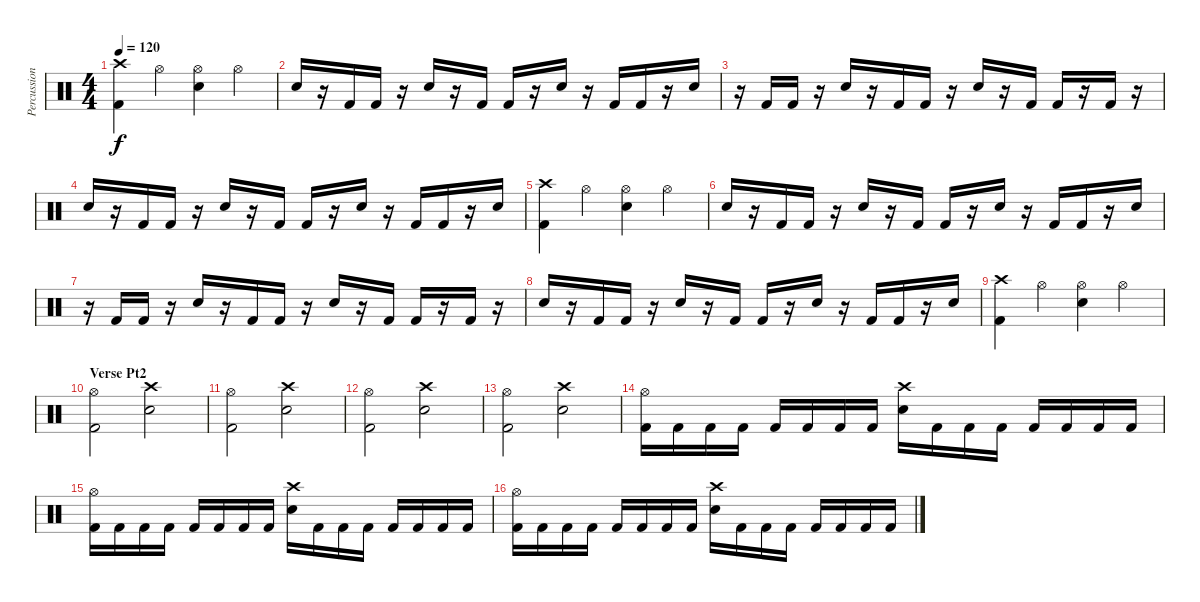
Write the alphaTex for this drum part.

\track ("Percussion" "Percussion") {instrument percussion}
\staff {score}
\articulation defaults
\ts (4 4)
\tempo 120
\clef neutral
\ks c
("Crash high (hit)" "Kick (hit) 2").4{dy f} "Hi-Hat (open)".4 ("Hi-Hat (open)" "Electric Snare (hit)").4 "Hi-Hat (open)".4 |
"Electric Snare (hit)".16 r.16 "Kick (hit) 2".16 "Kick (hit) 2".16 r.16 "Electric Snare (hit)".16 r.16 "Kick (hit) 2".16 "Kick (hit) 2".16 r.16 "Electric Snare (hit)".16 r.16 "Kick (hit) 2".16 "Kick (hit) 2".16 r.16 "Electric Snare (hit)".16 |
r.16 "Kick (hit) 2".16 "Kick (hit) 2".16 r.16 "Electric Snare (hit)".16 r.16 "Kick (hit) 2".16 "Kick (hit) 2".16 r.16 "Electric Snare (hit)".16 r.16 "Kick (hit) 2".16 "Kick (hit) 2".16 r.16 "Kick (hit) 2".16 r.16 |
"Electric Snare (hit)".16 r.16 "Kick (hit) 2".16 "Kick (hit) 2".16 r.16 "Electric Snare (hit)".16 r.16 "Kick (hit) 2".16 "Kick (hit) 2".16 r.16 "Electric Snare (hit)".16 r.16 "Kick (hit) 2".16 "Kick (hit) 2".16 r.16 "Electric Snare (hit)".16 |
("Crash high (hit)" "Kick (hit) 2").4 "Hi-Hat (open)".4 ("Hi-Hat (open)" "Electric Snare (hit)").4 "Hi-Hat (open)".4 |
"Electric Snare (hit)".16 r.16 "Kick (hit) 2".16 "Kick (hit) 2".16 r.16 "Electric Snare (hit)".16 r.16 "Kick (hit) 2".16 "Kick (hit) 2".16 r.16 "Electric Snare (hit)".16 r.16 "Kick (hit) 2".16 "Kick (hit) 2".16 r.16 "Electric Snare (hit)".16 |
r.16 "Kick (hit) 2".16 "Kick (hit) 2".16 r.16 "Electric Snare (hit)".16 r.16 "Kick (hit) 2".16 "Kick (hit) 2".16 r.16 "Electric Snare (hit)".16 r.16 "Kick (hit) 2".16 "Kick (hit) 2".16 r.16 "Kick (hit) 2".16 r.16 |
"Electric Snare (hit)".16 r.16 "Kick (hit) 2".16 "Kick (hit) 2".16 r.16 "Electric Snare (hit)".16 r.16 "Kick (hit) 2".16 "Kick (hit) 2".16 r.16 "Electric Snare (hit)".16 r.16 "Kick (hit) 2".16 "Kick (hit) 2".16 r.16 "Electric Snare (hit)".16 |
("Crash high (hit)" "Kick (hit) 2").4 "Hi-Hat (open)".4 ("Hi-Hat (open)" "Electric Snare (hit)").4 "Hi-Hat (open)".4 |
\section ("" "Verse Pt2")
("Hi-Hat (open)" "Kick (hit) 2").2 ("Crash high (hit)" "Electric Snare (hit)").2 |
("Hi-Hat (open)" "Kick (hit) 2").2 ("Crash high (hit)" "Electric Snare (hit)").2 |
("Hi-Hat (open)" "Kick (hit) 2").2 ("Crash high (hit)" "Electric Snare (hit)").2 |
("Hi-Hat (open)" "Kick (hit) 2").2 ("Crash high (hit)" "Electric Snare (hit)").2 |
("Hi-Hat (open)" "Kick (hit) 2").16 "Kick (hit) 2".16 "Kick (hit) 2".16 "Kick (hit) 2".16 "Kick (hit) 2".16 "Kick (hit) 2".16 "Kick (hit) 2".16 "Kick (hit) 2".16 ("Crash high (hit)" "Electric Snare (hit)").16 "Kick (hit) 2".16 "Kick (hit) 2".16 "Kick (hit) 2".16 "Kick (hit) 2".16 "Kick (hit) 2".16 "Kick (hit) 2".16 "Kick (hit) 2".16 |
("Hi-Hat (open)" "Kick (hit) 2").16 "Kick (hit) 2".16 "Kick (hit) 2".16 "Kick (hit) 2".16 "Kick (hit) 2".16 "Kick (hit) 2".16 "Kick (hit) 2".16 "Kick (hit) 2".16 ("Crash high (hit)" "Electric Snare (hit)").16 "Kick (hit) 2".16 "Kick (hit) 2".16 "Kick (hit) 2".16 "Kick (hit) 2".16 "Kick (hit) 2".16 "Kick (hit) 2".16 "Kick (hit) 2".16 |
("Hi-Hat (open)" "Kick (hit) 2").16 "Kick (hit) 2".16 "Kick (hit) 2".16 "Kick (hit) 2".16 "Kick (hit) 2".16 "Kick (hit) 2".16 "Kick (hit) 2".16 "Kick (hit) 2".16 ("Crash high (hit)" "Electric Snare (hit)").16 "Kick (hit) 2".16 "Kick (hit) 2".16 "Kick (hit) 2".16 "Kick (hit) 2".16 "Kick (hit) 2".16 "Kick (hit) 2".16 "Kick (hit) 2".16
